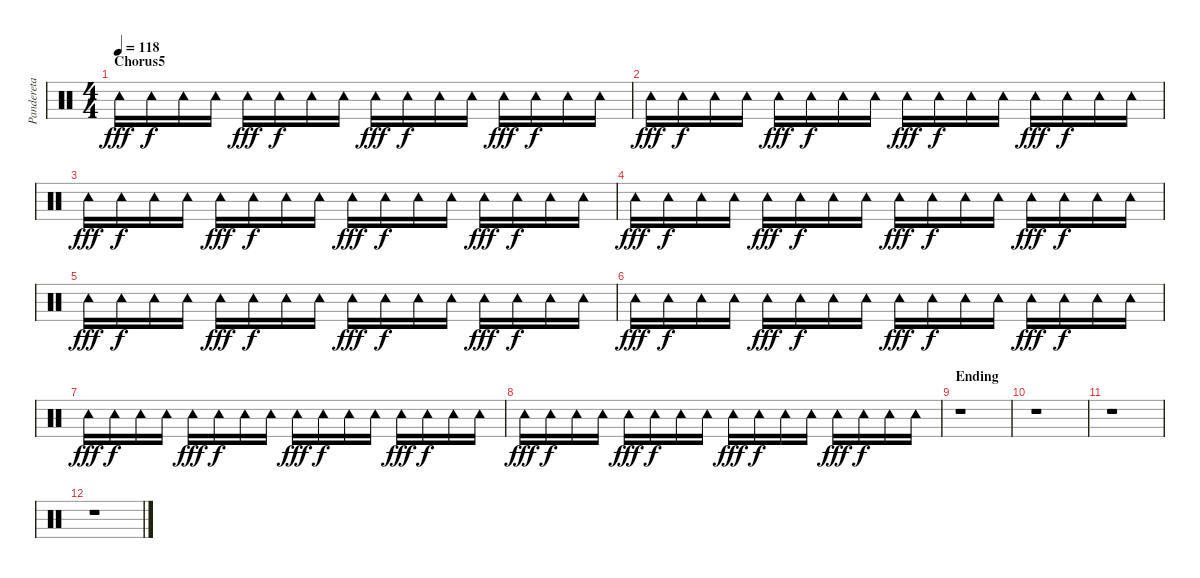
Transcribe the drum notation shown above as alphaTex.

\track ("Pandereta" "Pandereta") {instrument percussion}
\staff {score}
\articulation defaults
\ts (4 4)
\section ("" "Chorus5")
\tempo 118
\clef neutral
\ks c "Tambourine (hit)".16{dy fff} "Tambourine (hit)".16{dy f} "Tambourine (hit)".16 "Tambourine (hit)".16 "Tambourine (hit)".16{dy fff} "Tambourine (hit)".16{dy f} "Tambourine (hit)".16 "Tambourine (hit)".16 "Tambourine (hit)".16{dy fff} "Tambourine (hit)".16{dy f} "Tambourine (hit)".16 "Tambourine (hit)".16 "Tambourine (hit)".16{dy fff} "Tambourine (hit)".16{dy f} "Tambourine (hit)".16 "Tambourine (hit)".16
|
"Tambourine (hit)".16{dy fff} "Tambourine (hit)".16{dy f} "Tambourine (hit)".16 "Tambourine (hit)".16 "Tambourine (hit)".16{dy fff} "Tambourine (hit)".16{dy f} "Tambourine (hit)".16 "Tambourine (hit)".16 "Tambourine (hit)".16{dy fff} "Tambourine (hit)".16{dy f} "Tambourine (hit)".16 "Tambourine (hit)".16 "Tambourine (hit)".16{dy fff} "Tambourine (hit)".16{dy f} "Tambourine (hit)".16 "Tambourine (hit)".16 |
"Tambourine (hit)".16{dy fff} "Tambourine (hit)".16{dy f} "Tambourine (hit)".16 "Tambourine (hit)".16 "Tambourine (hit)".16{dy fff} "Tambourine (hit)".16{dy f} "Tambourine (hit)".16 "Tambourine (hit)".16 "Tambourine (hit)".16{dy fff} "Tambourine (hit)".16{dy f} "Tambourine (hit)".16 "Tambourine (hit)".16 "Tambourine (hit)".16{dy fff} "Tambourine (hit)".16{dy f} "Tambourine (hit)".16 "Tambourine (hit)".16 |
"Tambourine (hit)".16{dy fff} "Tambourine (hit)".16{dy f} "Tambourine (hit)".16 "Tambourine (hit)".16 "Tambourine (hit)".16{dy fff} "Tambourine (hit)".16{dy f} "Tambourine (hit)".16 "Tambourine (hit)".16 "Tambourine (hit)".16{dy fff} "Tambourine (hit)".16{dy f} "Tambourine (hit)".16 "Tambourine (hit)".16 "Tambourine (hit)".16{dy fff} "Tambourine (hit)".16{dy f} "Tambourine (hit)".16 "Tambourine (hit)".16 |
"Tambourine (hit)".16{dy fff} "Tambourine (hit)".16{dy f} "Tambourine (hit)".16 "Tambourine (hit)".16 "Tambourine (hit)".16{dy fff} "Tambourine (hit)".16{dy f} "Tambourine (hit)".16 "Tambourine (hit)".16 "Tambourine (hit)".16{dy fff} "Tambourine (hit)".16{dy f} "Tambourine (hit)".16 "Tambourine (hit)".16 "Tambourine (hit)".16{dy fff} "Tambourine (hit)".16{dy f} "Tambourine (hit)".16 "Tambourine (hit)".16 |
"Tambourine (hit)".16{dy fff} "Tambourine (hit)".16{dy f} "Tambourine (hit)".16 "Tambourine (hit)".16 "Tambourine (hit)".16{dy fff} "Tambourine (hit)".16{dy f} "Tambourine (hit)".16 "Tambourine (hit)".16 "Tambourine (hit)".16{dy fff} "Tambourine (hit)".16{dy f} "Tambourine (hit)".16 "Tambourine (hit)".16 "Tambourine (hit)".16{dy fff} "Tambourine (hit)".16{dy f} "Tambourine (hit)".16 "Tambourine (hit)".16 |
"Tambourine (hit)".16{dy fff} "Tambourine (hit)".16{dy f} "Tambourine (hit)".16 "Tambourine (hit)".16 "Tambourine (hit)".16{dy fff} "Tambourine (hit)".16{dy f} "Tambourine (hit)".16 "Tambourine (hit)".16 "Tambourine (hit)".16{dy fff} "Tambourine (hit)".16{dy f} "Tambourine (hit)".16 "Tambourine (hit)".16 "Tambourine (hit)".16{dy fff} "Tambourine (hit)".16{dy f} "Tambourine (hit)".16 "Tambourine (hit)".16 |
"Tambourine (hit)".16{dy fff} "Tambourine (hit)".16{dy f} "Tambourine (hit)".16 "Tambourine (hit)".16 "Tambourine (hit)".16{dy fff} "Tambourine (hit)".16{dy f} "Tambourine (hit)".16 "Tambourine (hit)".16 "Tambourine (hit)".16{dy fff} "Tambourine (hit)".16{dy f} "Tambourine (hit)".16 "Tambourine (hit)".16 "Tambourine (hit)".16{dy fff} "Tambourine (hit)".16{dy f} "Tambourine (hit)".16 "Tambourine (hit)".16 |
\section ("" "Ending")
r.1 |
r.1 |
r.1 |
r.1
